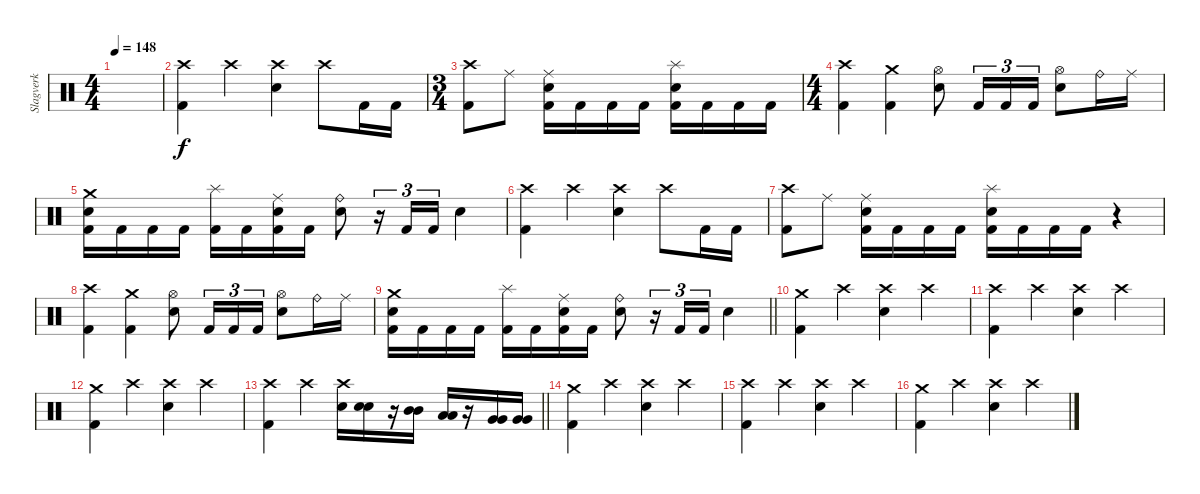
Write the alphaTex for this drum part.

\track ("Slagverk" "Slagverk") {instrument percussion}
\staff {score}
\articulation defaults
\ts (4 4)
\tempo 148
\clef neutral
\ks c
|
("Crash high (hit)" "Kick (hit) 2").4 "Crash high (hit)".4 ("Crash high (hit)" "Snare (hit) 2").4 "Crash high (hit)".8 "Kick (hit) 2".16 "Kick (hit) 2".16 |
\ts (3 4)
("Crash high (hit)" "Kick (hit) 2").8 "Ride (middle)".8 ("Ride (middle)" "Snare (hit) 2" "Kick (hit) 2").16 "Kick (hit) 2".16 "Kick (hit) 2".16 "Kick (hit) 2".16 ("Splash (hit)" "Snare (hit) 2" "Kick (hit) 2").16 "Kick (hit) 2".16 "Kick (hit) 2".16 "Kick (hit) 2".16 |
\ts (4 4)
("Crash high (hit)" "Kick (hit) 2").4 ("Crash medium (hit)" "Kick (hit) 2").4 ("Hi-Hat (open)" "Snare (hit) 2").8 "Kick (hit) 2".16{tu (3 2)} "Kick (hit) 2".16{tu (3 2)} "Kick (hit) 2".16{tu (3 2)} ("Hi-Hat (open)" "Snare (hit) 2").8 "Ride (bell)".16 "Ride (middle)".16 |
("Crash medium (hit)" "Snare (hit) 2" "Kick (hit) 2").16 "Kick (hit) 2".16 "Kick (hit) 2".16 "Kick (hit) 2".16 ("Splash (hit)" "Kick (hit) 2").16 "Kick (hit) 2".16 ("Ride (middle)" "Snare (hit) 2" "Kick (hit) 2").16 "Kick (hit) 2".16 ("Ride (bell)" "Snare (hit) 2").8 r.16{tu (3 2)} "Kick (hit) 2".16{tu (3 2)} "Kick (hit) 2".16{tu (3 2)} "Snare (hit) 2".4 |
("Crash high (hit)" "Kick (hit) 2").4 "Crash high (hit)".4 ("Crash high (hit)" "Snare (hit) 2").4 "Crash high (hit)".8 "Kick (hit) 2".16 "Kick (hit) 2".16 |
("Crash high (hit)" "Kick (hit) 2").8 "Ride (middle)".8 ("Ride (middle)" "Snare (hit) 2" "Kick (hit) 2").16 "Kick (hit) 2".16 "Kick (hit) 2".16 "Kick (hit) 2".16 ("Splash (hit)" "Snare (hit) 2" "Kick (hit) 2").16 "Kick (hit) 2".16 "Kick (hit) 2".16 "Kick (hit) 2".16 r.4 |
("Crash high (hit)" "Kick (hit) 2").4 ("Crash medium (hit)" "Kick (hit) 2").4 ("Hi-Hat (open)" "Snare (hit) 2").8 "Kick (hit) 2".16{tu (3 2)} "Kick (hit) 2".16{tu (3 2)} "Kick (hit) 2".16{tu (3 2)} ("Hi-Hat (open)" "Snare (hit) 2").8 "Ride (bell)".16 "Ride (middle)".16 |
\barLineRight lightlight
("Crash medium (hit)" "Snare (hit) 2" "Kick (hit) 2").16 "Kick (hit) 2".16 "Kick (hit) 2".16 "Kick (hit) 2".16 ("Splash (hit)" "Kick (hit) 2").16 "Kick (hit) 2".16 ("Ride (middle)" "Snare (hit) 2" "Kick (hit) 2").16 "Kick (hit) 2".16 ("Ride (bell)" "Snare (hit) 2").8 r.16{tu (3 2)} "Kick (hit) 2".16{tu (3 2)} "Kick (hit) 2".16{tu (3 2)} "Snare (hit) 2".4 |
("Crash medium (hit)" "Kick (hit) 2").4 "Crash high (hit)".4 ("Crash high (hit)" "Snare (hit) 2").4 "Crash high (hit)".4 |
("Crash high (hit)" "Kick (hit) 2").4 "Crash high (hit)".4 ("Crash high (hit)" "Snare (hit) 2").4 "Crash high (hit)".4 |
("Crash medium (hit)" "Kick (hit) 2").4 "Crash high (hit)".4 ("Crash high (hit)" "Snare (hit) 2").4 "Crash high (hit)".4 |
\barLineRight lightlight
("Crash high (hit)" "Kick (hit) 2").4 "Crash high (hit)".4 ("Crash high (hit)" "Snare (hit) 2").16 ("Snare (hit) 2" "Snare (hit) 2").16 r.16 ("Mid Tom (hit)" "Mid Tom (hit)").16 ("Low Tom (hit)" "Low Tom (hit)").16 r.16 ("Very Low Tom (hit)" "Very Low Tom (hit)").16 ("Very Low Tom (hit)" "Very Low Tom (hit)").16 |
("Crash medium (hit)" "Kick (hit) 2").4 "Crash high (hit)".4 ("Crash high (hit)" "Snare (hit) 2").4 "Crash high (hit)".4 |
("Crash high (hit)" "Kick (hit) 2").4 "Crash high (hit)".4 ("Crash high (hit)" "Snare (hit) 2").4 "Crash high (hit)".4 |
("Crash medium (hit)" "Kick (hit) 2").4 "Crash high (hit)".4 ("Crash high (hit)" "Snare (hit) 2").4 "Crash high (hit)".4
